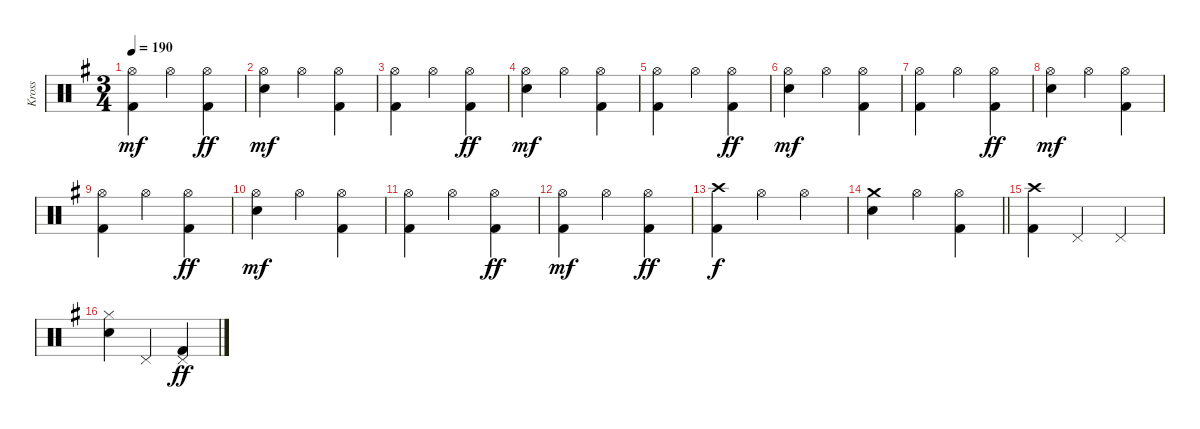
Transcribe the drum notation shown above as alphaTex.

\track ("Kross" "Kross") {instrument percussion}
\staff {score}
\articulation defaults
\ts (3 4)
\tempo 190
\clef neutral
\ks g
("Hi-Hat (open)" "Kick (hit) 2").4{dy mf} "Hi-Hat (open)".4 ("Hi-Hat (open)" "Kick (hit) 2").4{dy ff} |
("Hi-Hat (open)" "Snare (hit) 2").4{dy mf} "Hi-Hat (open)".4 ("Hi-Hat (open)" "Kick (hit) 2").4 |
("Hi-Hat (open)" "Kick (hit) 2").4 "Hi-Hat (open)".4 ("Hi-Hat (open)" "Kick (hit) 2").4{dy ff} |
("Hi-Hat (open)" "Snare (hit) 2").4{dy mf} "Hi-Hat (open)".4 ("Hi-Hat (open)" "Kick (hit) 2").4 |
("Hi-Hat (open)" "Kick (hit) 2").4 "Hi-Hat (open)".4 ("Hi-Hat (open)" "Kick (hit) 2").4{dy ff} |
("Hi-Hat (open)" "Snare (hit) 2").4{dy mf} "Hi-Hat (open)".4 ("Hi-Hat (open)" "Kick (hit) 2").4 |
("Hi-Hat (open)" "Kick (hit) 2").4 "Hi-Hat (open)".4 ("Hi-Hat (open)" "Kick (hit) 2").4{dy ff} |
("Hi-Hat (open)" "Snare (hit) 2").4{dy mf} "Hi-Hat (open)".4 ("Hi-Hat (open)" "Kick (hit) 2").4 |
("Hi-Hat (open)" "Kick (hit) 2").4 "Hi-Hat (open)".4 ("Hi-Hat (open)" "Kick (hit) 2").4{dy ff} |
("Hi-Hat (open)" "Snare (hit) 2").4{dy mf} "Hi-Hat (open)".4 ("Hi-Hat (open)" "Kick (hit) 2").4 |
("Hi-Hat (open)" "Kick (hit) 2").4 "Hi-Hat (open)".4 ("Hi-Hat (open)" "Kick (hit) 2").4{dy ff} |
("Hi-Hat (open)" "Kick (hit) 2").4{dy mf} "Hi-Hat (open)".4 ("Hi-Hat (open)" "Kick (hit) 2").4{dy ff} |
("Crash high (hit)" "Kick (hit) 2").4{dy f} "Hi-Hat (open)".4 "Hi-Hat (open)".4 |
\barLineRight lightlight
("Crash medium (hit)" "Snare (hit) 2").4 "Hi-Hat (open)".4 ("Hi-Hat (open)" "Kick (hit) 2").4 |
("Crash high (hit)" "Kick (hit) 2").4 "Pedal Hi-Hat (hit)".4 "Pedal Hi-Hat (hit)".4 |
("Hi-Hat (closed)" "Snare (hit) 2").4 "Pedal Hi-Hat (hit)".4 ("Pedal Hi-Hat (hit)" "Kick (hit) 2").4{dy ff}
